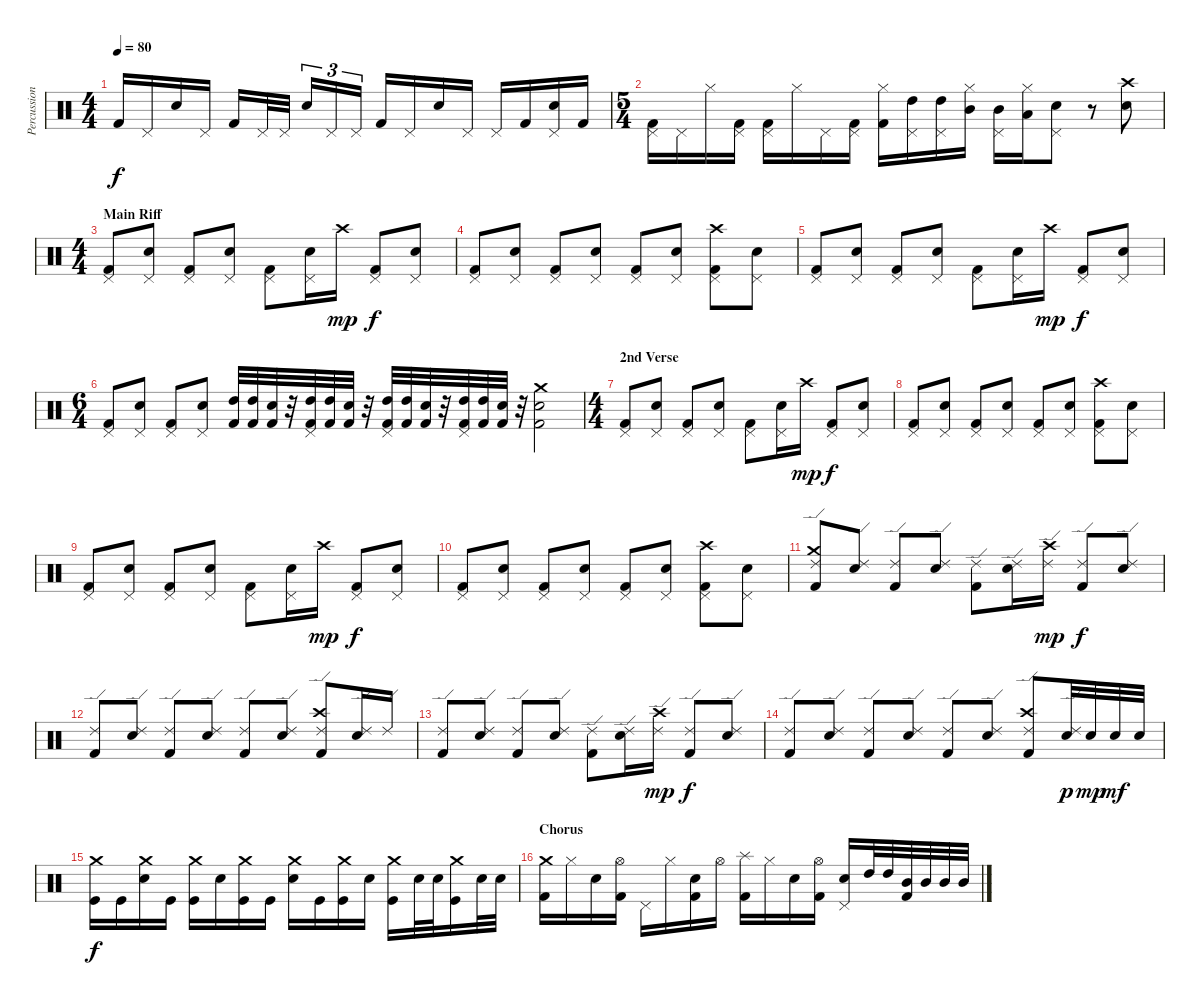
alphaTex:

\track ("Percussion" "Percussion") {instrument percussion}
\staff {score}
\articulation defaults
\ts (4 4)
\tempo 80
\clef neutral
\ks c "Kick (hit) 2".16{dy f} "Pedal Hi-Hat (hit)".16 "Electric Snare (hit)".16 "Pedal Hi-Hat (hit)".16 "Kick (hit) 2".16 "Pedal Hi-Hat (hit)".32 "Pedal Hi-Hat (hit)".32 "Electric Snare (hit)".16{tu (3 2)} "Pedal Hi-Hat (hit)".16{tu (3 2)} "Pedal Hi-Hat (hit)".16{tu (3 2)} "Kick (hit) 2".16 "Pedal Hi-Hat (hit)".16 "Electric Snare (hit)".16 "Pedal Hi-Hat (hit)".16 "Pedal Hi-Hat (hit)".16 "Kick (hit) 2".16
("Pedal Hi-Hat (hit)" "Electric Snare (hit)").16 "Kick (hit) 2".16 |
\ts (5 4)
("Pedal Hi-Hat (hit)" "Kick (hit) 2").16 "Pedal Hi-Hat (hit)".16 "Hi-Hat (closed)".16 ("Pedal Hi-Hat (hit)" "Kick (hit) 2").16 ("Pedal Hi-Hat (hit)" "Kick (hit) 2").16 "Hi-Hat (closed)".16 "Pedal Hi-Hat (hit)".16 ("Pedal Hi-Hat (hit)" "Kick (hit) 2").16 ("Hi-Hat (closed)" "Kick (hit) 2").16 ("Pedal Hi-Hat (hit)" "High Tom (hit)").16 ("Pedal Hi-Hat (hit)" "High Tom (hit)").16 ("Hi-Hat (closed)" "Mid Tom (hit)").16 ("Pedal Hi-Hat (hit)" "Mid Tom (hit)").16 ("Hi-Hat (closed)" "Low Tom (hit)").16 ("Pedal Hi-Hat (hit)" "Electric Snare (hit)").8 r.8 ("Crash high (hit)" "Electric Snare (hit)").8 |
\ts (4 4)
\section ("" "Main Riff")
("Pedal Hi-Hat (hit)" "Kick (hit) 2").8 ("Pedal Hi-Hat (hit)" "Electric Snare (hit)").8 ("Pedal Hi-Hat (hit)" "Kick (hit) 2").8 ("Pedal Hi-Hat (hit)" "Electric Snare (hit)").8 ("Pedal Hi-Hat (hit)" "Kick (hit) 2").8 ("Pedal Hi-Hat (hit)" "Electric Snare (hit)").16 "Crash high (hit)".16{dy mp} ("Pedal Hi-Hat (hit)" "Kick (hit) 2").8{dy f} ("Pedal Hi-Hat (hit)" "Electric Snare (hit)").8 |
("Pedal Hi-Hat (hit)" "Kick (hit) 2").8 ("Pedal Hi-Hat (hit)" "Electric Snare (hit)").8 ("Pedal Hi-Hat (hit)" "Kick (hit) 2").8 ("Pedal Hi-Hat (hit)" "Electric Snare (hit)").8 ("Pedal Hi-Hat (hit)" "Kick (hit) 2").8 ("Pedal Hi-Hat (hit)" "Electric Snare (hit)").8 ("Crash high (hit)" "Pedal Hi-Hat (hit)" "Kick (hit) 2").8 ("Pedal Hi-Hat (hit)" "Electric Snare (hit)").8 |
("Pedal Hi-Hat (hit)" "Kick (hit) 2").8 ("Pedal Hi-Hat (hit)" "Electric Snare (hit)").8 ("Pedal Hi-Hat (hit)" "Kick (hit) 2").8 ("Pedal Hi-Hat (hit)" "Electric Snare (hit)").8 ("Pedal Hi-Hat (hit)" "Kick (hit) 2").8 ("Pedal Hi-Hat (hit)" "Electric Snare (hit)").16 "Crash high (hit)".16{dy mp} ("Pedal Hi-Hat (hit)" "Kick (hit) 2").8{dy f} ("Pedal Hi-Hat (hit)" "Electric Snare (hit)").8 |
\ts (6 4)
("Pedal Hi-Hat (hit)" "Kick (hit) 2").8 ("Pedal Hi-Hat (hit)" "Electric Snare (hit)").8 ("Pedal Hi-Hat (hit)" "Kick (hit) 2").8 ("Pedal Hi-Hat (hit)" "Electric Snare (hit)").8 ("High Tom (hit)" "Kick (hit) 2").32 ("High Tom (hit)" "Kick (hit) 2").32 ("Electric Snare (hit)" "Kick (hit) 2").32 r.32 ("Pedal Hi-Hat (hit)" "High Tom (hit)" "Kick (hit) 2").32 ("High Tom (hit)" "Kick (hit) 2").32 ("Electric Snare (hit)" "Kick (hit) 2").32 r.32 ("Pedal Hi-Hat (hit)" "High Tom (hit)" "Kick (hit) 2").32 ("High Tom (hit)" "Kick (hit) 2").32 ("Electric Snare (hit)" "Kick (hit) 2").32 r.32 ("Pedal Hi-Hat (hit)" "High Tom (hit)" "Kick (hit) 2").32 ("High Tom (hit)" "Kick (hit) 2").32 ("Electric Snare (hit)" "Kick (hit) 2").32 r.32 ("Crash medium (hit)" "Electric Snare (hit)" "Kick (hit) 2").2 |
\ts (4 4)
\section ("" "2nd Verse")
("Pedal Hi-Hat (hit)" "Kick (hit) 2").8 ("Pedal Hi-Hat (hit)" "Electric Snare (hit)").8 ("Pedal Hi-Hat (hit)" "Kick (hit) 2").8 ("Pedal Hi-Hat (hit)" "Electric Snare (hit)").8 ("Pedal Hi-Hat (hit)" "Kick (hit) 2").8 ("Pedal Hi-Hat (hit)" "Electric Snare (hit)").16 "Crash high (hit)".16{dy mp} ("Pedal Hi-Hat (hit)" "Kick (hit) 2").8{dy f} ("Pedal Hi-Hat (hit)" "Electric Snare (hit)").8 |
("Pedal Hi-Hat (hit)" "Kick (hit) 2").8 ("Pedal Hi-Hat (hit)" "Electric Snare (hit)").8 ("Pedal Hi-Hat (hit)" "Kick (hit) 2").8 ("Pedal Hi-Hat (hit)" "Electric Snare (hit)").8 ("Pedal Hi-Hat (hit)" "Kick (hit) 2").8 ("Pedal Hi-Hat (hit)" "Electric Snare (hit)").8 ("Crash high (hit)" "Pedal Hi-Hat (hit)" "Kick (hit) 2").8 ("Pedal Hi-Hat (hit)" "Electric Snare (hit)").8 |
("Pedal Hi-Hat (hit)" "Kick (hit) 2").8 ("Pedal Hi-Hat (hit)" "Electric Snare (hit)").8 ("Pedal Hi-Hat (hit)" "Kick (hit) 2").8 ("Pedal Hi-Hat (hit)" "Electric Snare (hit)").8 ("Pedal Hi-Hat (hit)" "Kick (hit) 2").8 ("Pedal Hi-Hat (hit)" "Electric Snare (hit)").16 "Crash high (hit)".16{dy mp} ("Pedal Hi-Hat (hit)" "Kick (hit) 2").8{dy f} ("Pedal Hi-Hat (hit)" "Electric Snare (hit)").8 |
("Pedal Hi-Hat (hit)" "Kick (hit) 2").8 ("Pedal Hi-Hat (hit)" "Electric Snare (hit)").8 ("Pedal Hi-Hat (hit)" "Kick (hit) 2").8 ("Pedal Hi-Hat (hit)" "Electric Snare (hit)").8 ("Pedal Hi-Hat (hit)" "Kick (hit) 2").8 ("Pedal Hi-Hat (hit)" "Electric Snare (hit)").8 ("Crash high (hit)" "Pedal Hi-Hat (hit)" "Kick (hit) 2").8 ("Pedal Hi-Hat (hit)" "Electric Snare (hit)").8 |
("Crash medium (hit)" "Ride (edge) 2" "Kick (hit) 2").8 ("Ride (edge) 2" "Electric Snare (hit)").8 ("Ride (edge) 2" "Kick (hit) 2").8 ("Ride (edge) 2" "Electric Snare (hit)").8 ("Ride (edge) 2" "Kick (hit) 2").8 ("Ride (edge) 2" "Electric Snare (hit)").16 ("Crash high (hit)" "Ride (edge) 2").16{dy mp} ("Ride (edge) 2" "Kick (hit) 2").8{dy f} ("Ride (edge) 2" "Electric Snare (hit)").8 |
("Ride (edge) 2" "Kick (hit) 2").8 ("Ride (edge) 2" "Electric Snare (hit)").8 ("Ride (edge) 2" "Kick (hit) 2").8 ("Ride (edge) 2" "Electric Snare (hit)").8 ("Ride (edge) 2" "Kick (hit) 2").8 ("Ride (edge) 2" "Electric Snare (hit)").8 ("Crash high (hit)" "Ride (edge) 2" "Kick (hit) 2").8 ("Ride (edge) 2" "Electric Snare (hit)").16 "Ride (edge) 2".16 |
("Ride (edge) 2" "Kick (hit) 2").8 ("Ride (edge) 2" "Electric Snare (hit)").8 ("Ride (edge) 2" "Kick (hit) 2").8 ("Ride (edge) 2" "Electric Snare (hit)").8 ("Ride (edge) 2" "Kick (hit) 2").8 ("Ride (edge) 2" "Electric Snare (hit)").16 ("Crash high (hit)" "Ride (edge) 2").16{dy mp} ("Ride (edge) 2" "Kick (hit) 2").8{dy f} ("Ride (edge) 2" "Electric Snare (hit)").8 |
("Ride (edge) 2" "Kick (hit) 2").8 ("Ride (edge) 2" "Electric Snare (hit)").8 ("Ride (edge) 2" "Kick (hit) 2").8 ("Ride (edge) 2" "Electric Snare (hit)").8 ("Ride (edge) 2" "Kick (hit) 2").8 ("Ride (edge) 2" "Electric Snare (hit)").8 ("Crash high (hit)" "Ride (edge) 2" "Kick (hit) 2").8 ("Ride (edge) 2" "Electric Snare (hit)").32{dy p} "Electric Snare (hit)".32{dy mp} "Electric Snare (hit)".32{dy mf} "Electric Snare (hit)".32 |
("Crash medium (hit)" "Kick (hit)").16{dy f} "Kick (hit)".16 ("Crash medium (hit)" "Electric Snare (hit)").16 "Kick (hit)".16 ("Crash medium (hit)" "Kick (hit)").16 "Electric Snare (hit)".16 ("Crash medium (hit)" "Kick (hit)").16 "Kick (hit)".16 ("Crash medium (hit)" "Electric Snare (hit)").16 "Kick (hit)".16 ("Crash medium (hit)" "Kick (hit)").16 "Electric Snare (hit)".16 ("Crash medium (hit)" "Kick (hit)").16 "Electric Snare (hit)".32 "Electric Snare (hit)".32 ("Crash medium (hit)" "Kick (hit)").16 "Electric Snare (hit)".32 "Electric Snare (hit)".32 |
\section ("" "Chorus")
("Crash medium (hit)" "Kick (hit) 2").16 "Hi-Hat (closed)".16 "Electric Snare (hit)".16 ("Hi-Hat (open)" "Kick (hit) 2").16 "Pedal Hi-Hat (hit)".16 "Hi-Hat (closed)".16 ("Electric Snare (hit)" "Kick (hit) 2").16 "Hi-Hat (open)".16 ("Splash (hit)" "Kick (hit) 2").16 "Hi-Hat (closed)".16 "Electric Snare (hit)".16 ("Hi-Hat (open)" "Kick (hit) 2").16 ("Pedal Hi-Hat (hit)" "Electric Snare (hit)").16 "High Tom (hit)".32 "High Tom (hit)".32 ("Mid Tom (hit)" "Kick (hit) 2").32 "Mid Tom (hit)".32 "Mid Tom (hit)".32 "Mid Tom (hit)".32
